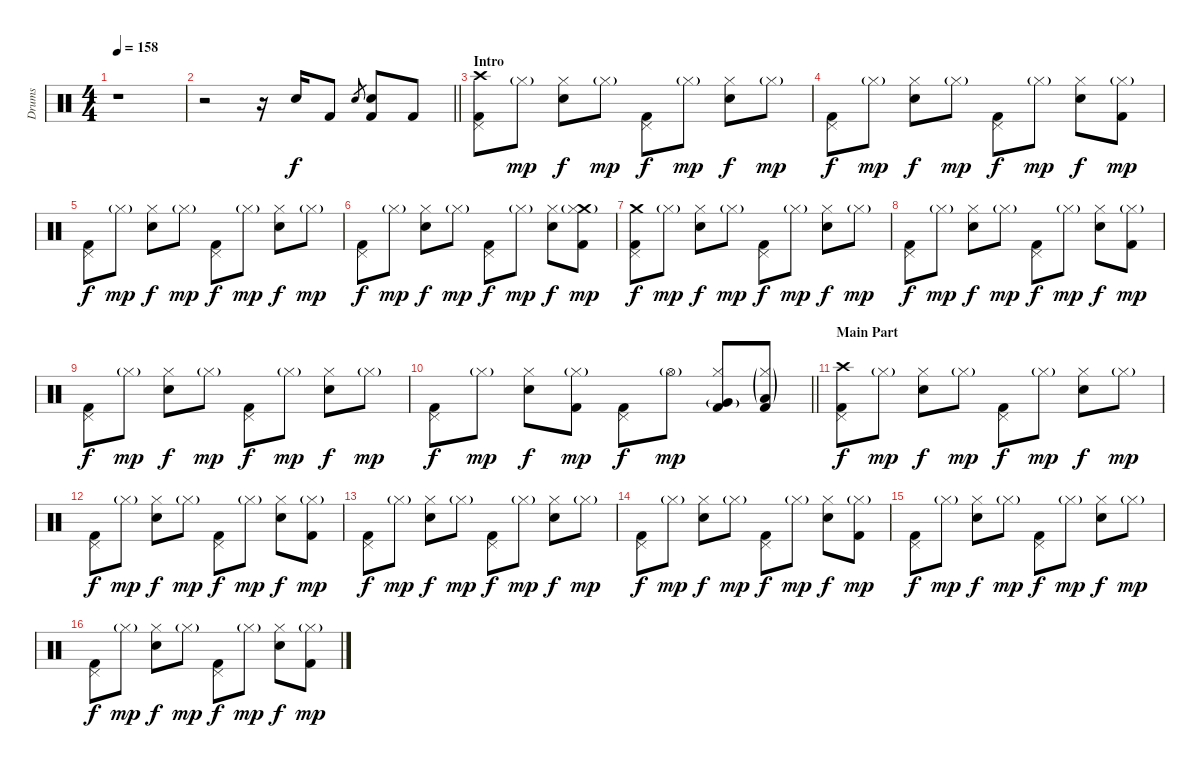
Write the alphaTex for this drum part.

\track ("Drums" "Drums") {instrument percussion}
\staff {score}
\articulation defaults
\ts (4 4)
\tempo 158
\clef neutral
\ks c
r.1{dy f} |
\barLineRight lightlight
r.2 r.16 "Snare (hit) 2".16 "Kick (hit) 2".8 "Snare (hit) 2".8{gr} ("Snare (hit) 2" "Kick (hit) 2").8 "Kick (hit) 2".8 |
\section ("" "Intro")
("Crash high (hit)" "Pedal Hi-Hat (hit)" "Kick (hit) 2").8 "Hi-Hat (closed)"{g}.8{dy mp} ("Hi-Hat (closed)" "Snare (hit) 2").8{dy f} "Hi-Hat (closed)"{g}.8{dy mp} ("Pedal Hi-Hat (hit)" "Kick (hit) 2").8{dy f} "Hi-Hat (closed)"{g}.8{dy mp} ("Hi-Hat (closed)" "Snare (hit) 2").8{dy f} "Hi-Hat (closed)"{g}.8{dy mp} |
("Pedal Hi-Hat (hit)" "Kick (hit) 2").8{dy f} "Hi-Hat (closed)"{g}.8{dy mp} ("Hi-Hat (closed)" "Snare (hit) 2").8{dy f} "Hi-Hat (closed)"{g}.8{dy mp} ("Pedal Hi-Hat (hit)" "Kick (hit) 2").8{dy f} "Hi-Hat (closed)"{g}.8{dy mp} ("Hi-Hat (closed)" "Snare (hit) 2").8{dy f} ("Hi-Hat (closed)"{g} "Kick (hit) 2").8{dy mp} |
("Pedal Hi-Hat (hit)" "Kick (hit) 2").8{dy f} "Hi-Hat (closed)"{g}.8{dy mp} ("Hi-Hat (closed)" "Snare (hit) 2").8{dy f} "Hi-Hat (closed)"{g}.8{dy mp} ("Pedal Hi-Hat (hit)" "Kick (hit) 2").8{dy f} "Hi-Hat (closed)"{g}.8{dy mp} ("Hi-Hat (closed)" "Snare (hit) 2").8{dy f} "Hi-Hat (closed)"{g}.8{dy mp} |
("Pedal Hi-Hat (hit)" "Kick (hit) 2").8{dy f} "Hi-Hat (closed)"{g}.8{dy mp} ("Hi-Hat (closed)" "Snare (hit) 2").8{dy f} "Hi-Hat (closed)"{g}.8{dy mp} ("Pedal Hi-Hat (hit)" "Kick (hit) 2").8{dy f} "Hi-Hat (closed)"{g}.8{dy mp} ("Hi-Hat (closed)" "Snare (hit) 2").8{dy f} ("Crash medium (hit)" "Hi-Hat (closed)"{g} "Kick (hit) 2").8{dy mp} |
("Crash medium (hit)" "Pedal Hi-Hat (hit)" "Kick (hit) 2").8{dy f} "Hi-Hat (closed)"{g}.8{dy mp} ("Hi-Hat (closed)" "Snare (hit) 2").8{dy f} "Hi-Hat (closed)"{g}.8{dy mp} ("Pedal Hi-Hat (hit)" "Kick (hit) 2").8{dy f} "Hi-Hat (closed)"{g}.8{dy mp} ("Hi-Hat (closed)" "Snare (hit) 2").8{dy f} "Hi-Hat (closed)"{g}.8{dy mp} |
("Pedal Hi-Hat (hit)" "Kick (hit) 2").8{dy f} "Hi-Hat (closed)"{g}.8{dy mp} ("Hi-Hat (closed)" "Snare (hit) 2").8{dy f} "Hi-Hat (closed)"{g}.8{dy mp} ("Pedal Hi-Hat (hit)" "Kick (hit) 2").8{dy f} "Hi-Hat (closed)"{g}.8{dy mp} ("Hi-Hat (closed)" "Snare (hit) 2").8{dy f} ("Hi-Hat (closed)"{g} "Kick (hit) 2").8{dy mp} |
("Pedal Hi-Hat (hit)" "Kick (hit) 2").8{dy f} "Hi-Hat (closed)"{g}.8{dy mp} ("Hi-Hat (closed)" "Snare (hit) 2").8{dy f} "Hi-Hat (closed)"{g}.8{dy mp} ("Pedal Hi-Hat (hit)" "Kick (hit) 2").8{dy f} "Hi-Hat (closed)"{g}.8{dy mp} ("Hi-Hat (closed)" "Snare (hit) 2").8{dy f} "Hi-Hat (closed)"{g}.8{dy mp} |
\barLineRight lightlight
("Pedal Hi-Hat (hit)" "Kick (hit) 2").8{dy f} "Hi-Hat (closed)"{g}.8{dy mp} ("Hi-Hat (closed)" "Snare (hit) 2").8{dy f} ("Hi-Hat (closed)"{g} "Kick (hit) 2").8{dy mp} ("Pedal Hi-Hat (hit)" "Kick (hit) 2").8{dy f} "Hi-Hat (open)"{g}.8{dy mp} ("Hi-Hat (closed)" "Very Low Tom (hit)"{g} "Kick (hit) 2").8 ("Hi-Hat (closed)"{g} "Low Floor Tom (hit)"{g} "Kick (hit) 2").8 |
\section ("" "Main Part")
("Crash high (hit)" "Pedal Hi-Hat (hit)" "Kick (hit) 2").8{dy f} "Hi-Hat (closed)"{g}.8{dy mp} ("Hi-Hat (closed)" "Snare (hit) 2").8{dy f} "Hi-Hat (closed)"{g}.8{dy mp} ("Pedal Hi-Hat (hit)" "Kick (hit) 2").8{dy f} "Hi-Hat (closed)"{g}.8{dy mp} ("Hi-Hat (closed)" "Snare (hit) 2").8{dy f} "Hi-Hat (closed)"{g}.8{dy mp} |
("Pedal Hi-Hat (hit)" "Kick (hit) 2").8{dy f} "Hi-Hat (closed)"{g}.8{dy mp} ("Hi-Hat (closed)" "Snare (hit) 2").8{dy f} "Hi-Hat (closed)"{g}.8{dy mp} ("Pedal Hi-Hat (hit)" "Kick (hit) 2").8{dy f} "Hi-Hat (closed)"{g}.8{dy mp} ("Hi-Hat (closed)" "Snare (hit) 2").8{dy f} ("Hi-Hat (closed)"{g} "Kick (hit) 2").8{dy mp} |
("Pedal Hi-Hat (hit)" "Kick (hit) 2").8{dy f} "Hi-Hat (closed)"{g}.8{dy mp} ("Hi-Hat (closed)" "Snare (hit) 2").8{dy f} "Hi-Hat (closed)"{g}.8{dy mp} ("Pedal Hi-Hat (hit)" "Kick (hit) 2").8{dy f} "Hi-Hat (closed)"{g}.8{dy mp} ("Hi-Hat (closed)" "Snare (hit) 2").8{dy f} "Hi-Hat (closed)"{g}.8{dy mp} |
("Pedal Hi-Hat (hit)" "Kick (hit) 2").8{dy f} "Hi-Hat (closed)"{g}.8{dy mp} ("Hi-Hat (closed)" "Snare (hit) 2").8{dy f} "Hi-Hat (closed)"{g}.8{dy mp} ("Pedal Hi-Hat (hit)" "Kick (hit) 2").8{dy f} "Hi-Hat (closed)"{g}.8{dy mp} ("Hi-Hat (closed)" "Snare (hit) 2").8{dy f} ("Hi-Hat (closed)"{g} "Kick (hit) 2").8{dy mp} |
("Pedal Hi-Hat (hit)" "Kick (hit) 2").8{dy f} "Hi-Hat (closed)"{g}.8{dy mp} ("Hi-Hat (closed)" "Snare (hit) 2").8{dy f} "Hi-Hat (closed)"{g}.8{dy mp} ("Pedal Hi-Hat (hit)" "Kick (hit) 2").8{dy f} "Hi-Hat (closed)"{g}.8{dy mp} ("Hi-Hat (closed)" "Snare (hit) 2").8{dy f} "Hi-Hat (closed)"{g}.8{dy mp} |
("Pedal Hi-Hat (hit)" "Kick (hit) 2").8{dy f} "Hi-Hat (closed)"{g}.8{dy mp} ("Hi-Hat (closed)" "Snare (hit) 2").8{dy f} "Hi-Hat (closed)"{g}.8{dy mp} ("Pedal Hi-Hat (hit)" "Kick (hit) 2").8{dy f} "Hi-Hat (closed)"{g}.8{dy mp} ("Hi-Hat (closed)" "Snare (hit) 2").8{dy f} ("Hi-Hat (closed)"{g} "Kick (hit) 2").8{dy mp}
